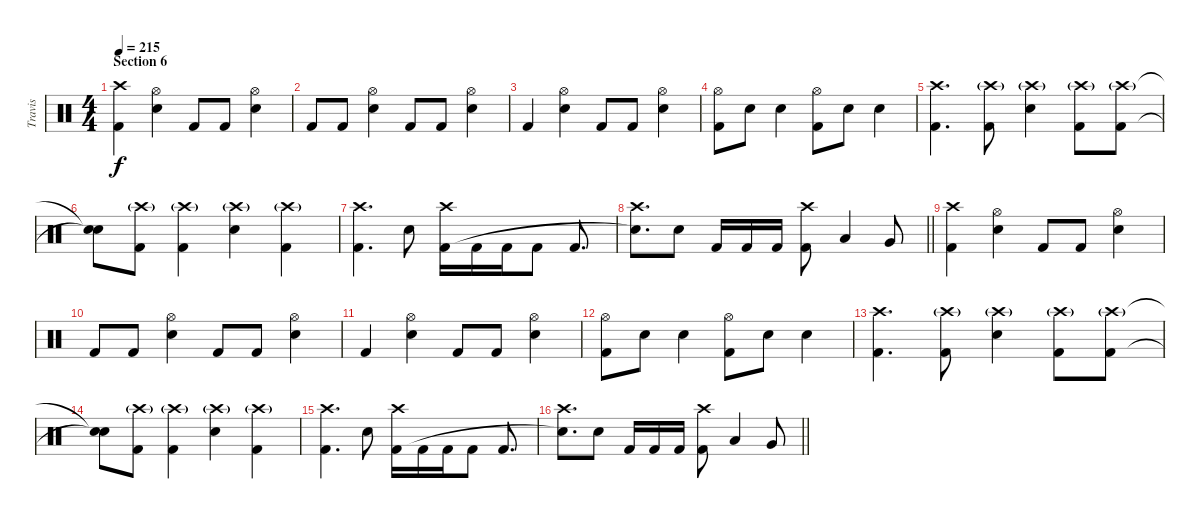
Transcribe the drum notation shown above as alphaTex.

\track ("Travis" "Travis") {instrument percussion}
\staff {score}
\articulation defaults
\ts (4 4)
\section ("" "Section 6")
\tempo 215
\clef neutral
\ks c
("Crash high (hit)" "Kick (hit) 2").4{dy f} ("Hi-Hat (open)" "Snare (hit) 2").4 "Kick (hit) 2".8 "Kick (hit) 2".8 ("Hi-Hat (open)" "Snare (hit) 2").4 |
"Kick (hit) 2".8 "Kick (hit) 2".8 ("Hi-Hat (open)" "Snare (hit) 2").4 "Kick (hit) 2".8 "Kick (hit) 2".8 ("Hi-Hat (open)" "Snare (hit) 2").4 |
"Kick (hit) 2".4 ("Hi-Hat (open)" "Snare (hit) 2").4 "Kick (hit) 2".8 "Kick (hit) 2".8 ("Hi-Hat (open)" "Snare (hit) 2").4 |
("Hi-Hat (open)" "Kick (hit) 2").8 "Snare (hit) 2".8 "Snare (hit) 2".4 ("Hi-Hat (open)" "Kick (hit) 2").8 "Snare (hit) 2".8 "Snare (hit) 2".4 |
("Crash high (hit)" "Kick (hit) 2").4{d} ("Crash high (hit)"{g} "Kick (hit) 2").8 ("Crash high (hit)"{g} "Snare (hit) 2").4 ("Crash high (hit)"{g} "Kick (hit) 2").8 ("Crash high (hit)"{g} "Kick (hit) 2").8 |
("Snare (hit)"{t} "Snare (hit)"{t}).8 ("Crash high (hit)"{g} "Kick (hit) 2").8 ("Crash high (hit)"{g} "Kick (hit) 2").4 ("Crash high (hit)"{g} "Snare (hit) 2").4 ("Crash high (hit)"{g} "Kick (hit) 2").4 |
("Crash high (hit)" "Kick (hit) 2").4{d} "Snare (hit) 2".8 ("Crash high (hit)" "Kick (hit) 2").16 "Kick (hit) 2".16 "Kick (hit) 2".16 "Kick (hit) 2".8 "Kick (hit) 2".8{d} |
\barLineRight lightlight
("Crash high (hit)" "Snare (hit)"{t}).8{d} "Snare (hit) 2".8 "Kick (hit) 2".16 "Kick (hit) 2".16 "Kick (hit) 2".16 ("Crash high (hit)" "Kick (hit) 2").8 "Low Tom (hit)".4 "Very Low Tom (hit)".8 |
("Crash high (hit)" "Kick (hit) 2").4 ("Hi-Hat (open)" "Snare (hit) 2").4 "Kick (hit) 2".8 "Kick (hit) 2".8 ("Hi-Hat (open)" "Snare (hit) 2").4 |
"Kick (hit) 2".8 "Kick (hit) 2".8 ("Hi-Hat (open)" "Snare (hit) 2").4 "Kick (hit) 2".8 "Kick (hit) 2".8 ("Hi-Hat (open)" "Snare (hit) 2").4 |
"Kick (hit) 2".4 ("Hi-Hat (open)" "Snare (hit) 2").4 "Kick (hit) 2".8 "Kick (hit) 2".8 ("Hi-Hat (open)" "Snare (hit) 2").4 |
("Hi-Hat (open)" "Kick (hit) 2").8 "Snare (hit) 2".8 "Snare (hit) 2".4 ("Hi-Hat (open)" "Kick (hit) 2").8 "Snare (hit) 2".8 "Snare (hit) 2".4 |
("Crash high (hit)" "Kick (hit) 2").4{d} ("Crash high (hit)"{g} "Kick (hit) 2").8 ("Crash high (hit)"{g} "Snare (hit) 2").4 ("Crash high (hit)"{g} "Kick (hit) 2").8 ("Crash high (hit)"{g} "Kick (hit) 2").8 |
("Snare (hit)"{t} "Snare (hit)"{t}).8 ("Crash high (hit)"{g} "Kick (hit) 2").8 ("Crash high (hit)"{g} "Kick (hit) 2").4 ("Crash high (hit)"{g} "Snare (hit) 2").4 ("Crash high (hit)"{g} "Kick (hit) 2").4 |
("Crash high (hit)" "Kick (hit) 2").4{d} "Snare (hit) 2".8 ("Crash high (hit)" "Kick (hit) 2").16 "Kick (hit) 2".16 "Kick (hit) 2".16 "Kick (hit) 2".8 "Kick (hit) 2".8{d} |
\barLineRight lightlight
("Crash high (hit)" "Snare (hit)"{t}).8{d} "Snare (hit) 2".8 "Kick (hit) 2".16 "Kick (hit) 2".16 "Kick (hit) 2".16 ("Crash high (hit)" "Kick (hit) 2").8 "Low Tom (hit)".4 "Very Low Tom (hit)".8
